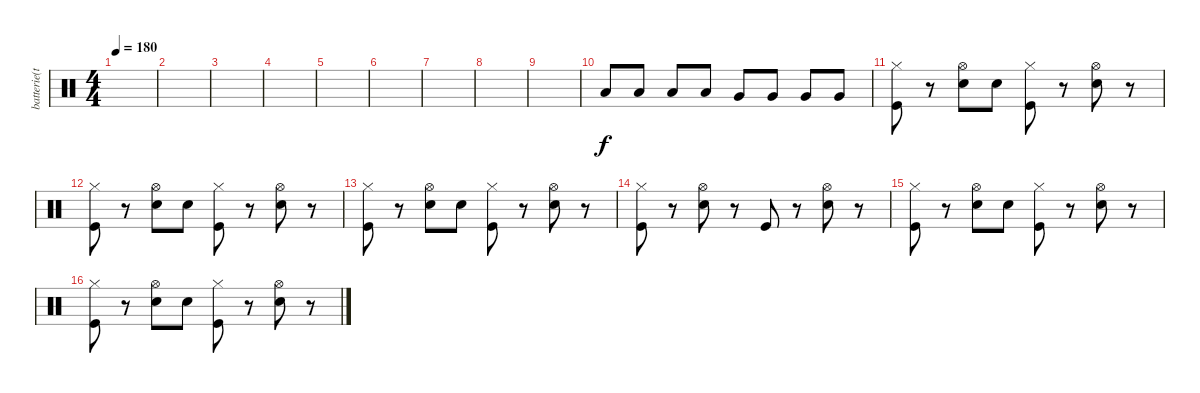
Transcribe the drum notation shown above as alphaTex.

\track ("batterie(topper)" "batterie(t") {instrument percussion}
\staff {score}
\articulation defaults
\ts (4 4)
\tempo 180
\clef neutral
\ks c
|
|
|
|
|
|
|
|
|
"Low Tom (hit)".8 "Low Tom (hit)".8 "Low Tom (hit)".8 "Low Tom (hit)".8 "Very Low Tom (hit)".8 "Very Low Tom (hit)".8 "Very Low Tom (hit)".8 "Very Low Tom (hit)".8 |
("Hi-Hat (closed)" "Kick (hit)").8 r.8 ("Hi-Hat (open)" "Snare (hit) 2").8 "Snare (hit) 2".8 ("Hi-Hat (closed)" "Kick (hit)").8 r.8 ("Hi-Hat (open)" "Snare (hit) 2").8 r.8 |
("Hi-Hat (closed)" "Kick (hit)").8 r.8 ("Hi-Hat (open)" "Snare (hit) 2").8 "Snare (hit) 2".8 ("Hi-Hat (closed)" "Kick (hit)").8 r.8 ("Hi-Hat (open)" "Snare (hit) 2").8 r.8 |
("Hi-Hat (closed)" "Kick (hit)").8 r.8 ("Hi-Hat (open)" "Snare (hit) 2").8 "Snare (hit) 2".8 ("Hi-Hat (closed)" "Kick (hit)").8 r.8 ("Hi-Hat (open)" "Snare (hit) 2").8 r.8 |
("Hi-Hat (closed)" "Kick (hit)").8 r.8 ("Hi-Hat (open)" "Snare (hit) 2").8 r.8 "Kick (hit)".8 r.8 ("Hi-Hat (open)" "Snare (hit) 2").8 r.8 |
("Hi-Hat (closed)" "Kick (hit)").8 r.8 ("Hi-Hat (open)" "Snare (hit) 2").8 "Snare (hit) 2".8 ("Hi-Hat (closed)" "Kick (hit)").8 r.8 ("Hi-Hat (open)" "Snare (hit) 2").8 r.8 |
("Hi-Hat (closed)" "Kick (hit)").8 r.8 ("Hi-Hat (open)" "Snare (hit) 2").8 "Snare (hit) 2".8 ("Hi-Hat (closed)" "Kick (hit)").8 r.8 ("Hi-Hat (open)" "Snare (hit) 2").8 r.8
